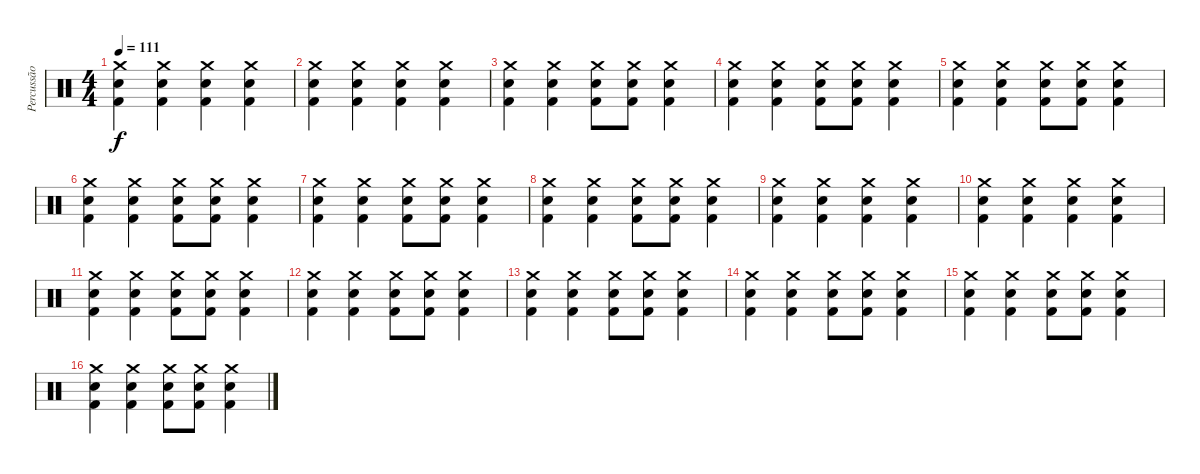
\track ("Percussão" "Percussão") {instrument percussion}
\staff {score}
\articulation defaults
\ts (4 4)
\tempo 111
\clef neutral
\ks c
("Kick (hit) 2" "Electric Snare (hit)" "Crash medium (hit)").4{dy f} ("Kick (hit) 2" "Electric Snare (hit)" "Crash medium (hit)").4 ("Kick (hit) 2" "Electric Snare (hit)" "Crash medium (hit)").4 ("Kick (hit) 2" "Electric Snare (hit)" "Crash medium (hit)").4 |
("Kick (hit) 2" "Electric Snare (hit)" "Crash medium (hit)").4 ("Kick (hit) 2" "Electric Snare (hit)" "Crash medium (hit)").4 ("Kick (hit) 2" "Electric Snare (hit)" "Crash medium (hit)").4 ("Kick (hit) 2" "Electric Snare (hit)" "Crash medium (hit)").4 |
("Kick (hit) 2" "Electric Snare (hit)" "Crash medium (hit)").4 ("Kick (hit) 2" "Electric Snare (hit)" "Crash medium (hit)").4 ("Kick (hit) 2" "Electric Snare (hit)" "Crash medium (hit)").8 ("Kick (hit) 2" "Electric Snare (hit)" "Crash medium (hit)").8 ("Kick (hit) 2" "Electric Snare (hit)" "Crash medium (hit)").4 |
("Kick (hit) 2" "Electric Snare (hit)" "Crash medium (hit)").4 ("Kick (hit) 2" "Electric Snare (hit)" "Crash medium (hit)").4 ("Kick (hit) 2" "Electric Snare (hit)" "Crash medium (hit)").8 ("Kick (hit) 2" "Electric Snare (hit)" "Crash medium (hit)").8 ("Kick (hit) 2" "Electric Snare (hit)" "Crash medium (hit)").4 |
("Kick (hit) 2" "Electric Snare (hit)" "Crash medium (hit)").4 ("Kick (hit) 2" "Electric Snare (hit)" "Crash medium (hit)").4 ("Kick (hit) 2" "Electric Snare (hit)" "Crash medium (hit)").8 ("Kick (hit) 2" "Electric Snare (hit)" "Crash medium (hit)").8 ("Kick (hit) 2" "Electric Snare (hit)" "Crash medium (hit)").4 |
("Kick (hit) 2" "Electric Snare (hit)" "Crash medium (hit)").4 ("Kick (hit) 2" "Electric Snare (hit)" "Crash medium (hit)").4 ("Kick (hit) 2" "Electric Snare (hit)" "Crash medium (hit)").8 ("Kick (hit) 2" "Electric Snare (hit)" "Crash medium (hit)").8 ("Kick (hit) 2" "Electric Snare (hit)" "Crash medium (hit)").4 |
("Kick (hit) 2" "Electric Snare (hit)" "Crash medium (hit)").4 ("Kick (hit) 2" "Electric Snare (hit)" "Crash medium (hit)").4 ("Kick (hit) 2" "Electric Snare (hit)" "Crash medium (hit)").8 ("Kick (hit) 2" "Electric Snare (hit)" "Crash medium (hit)").8 ("Kick (hit) 2" "Electric Snare (hit)" "Crash medium (hit)").4 |
("Kick (hit) 2" "Electric Snare (hit)" "Crash medium (hit)").4 ("Kick (hit) 2" "Electric Snare (hit)" "Crash medium (hit)").4 ("Kick (hit) 2" "Electric Snare (hit)" "Crash medium (hit)").8 ("Kick (hit) 2" "Electric Snare (hit)" "Crash medium (hit)").8 ("Kick (hit) 2" "Electric Snare (hit)" "Crash medium (hit)").4 |
("Kick (hit) 2" "Electric Snare (hit)" "Crash medium (hit)").4 ("Kick (hit) 2" "Electric Snare (hit)" "Crash medium (hit)").4 ("Kick (hit) 2" "Electric Snare (hit)" "Crash medium (hit)").4 ("Kick (hit) 2" "Electric Snare (hit)" "Crash medium (hit)").4 |
("Kick (hit) 2" "Electric Snare (hit)" "Crash medium (hit)").4 ("Kick (hit) 2" "Electric Snare (hit)" "Crash medium (hit)").4 ("Kick (hit) 2" "Electric Snare (hit)" "Crash medium (hit)").4 ("Kick (hit) 2" "Electric Snare (hit)" "Crash medium (hit)").4 |
("Kick (hit) 2" "Electric Snare (hit)" "Crash medium (hit)").4 ("Kick (hit) 2" "Electric Snare (hit)" "Crash medium (hit)").4 ("Kick (hit) 2" "Electric Snare (hit)" "Crash medium (hit)").8 ("Kick (hit) 2" "Electric Snare (hit)" "Crash medium (hit)").8 ("Kick (hit) 2" "Electric Snare (hit)" "Crash medium (hit)").4 |
("Kick (hit) 2" "Electric Snare (hit)" "Crash medium (hit)").4 ("Kick (hit) 2" "Electric Snare (hit)" "Crash medium (hit)").4 ("Kick (hit) 2" "Electric Snare (hit)" "Crash medium (hit)").8 ("Kick (hit) 2" "Electric Snare (hit)" "Crash medium (hit)").8 ("Kick (hit) 2" "Electric Snare (hit)" "Crash medium (hit)").4 |
("Kick (hit) 2" "Electric Snare (hit)" "Crash medium (hit)").4 ("Kick (hit) 2" "Electric Snare (hit)" "Crash medium (hit)").4 ("Kick (hit) 2" "Electric Snare (hit)" "Crash medium (hit)").8 ("Kick (hit) 2" "Electric Snare (hit)" "Crash medium (hit)").8 ("Kick (hit) 2" "Electric Snare (hit)" "Crash medium (hit)").4 |
("Kick (hit) 2" "Electric Snare (hit)" "Crash medium (hit)").4 ("Kick (hit) 2" "Electric Snare (hit)" "Crash medium (hit)").4 ("Kick (hit) 2" "Electric Snare (hit)" "Crash medium (hit)").8 ("Kick (hit) 2" "Electric Snare (hit)" "Crash medium (hit)").8 ("Kick (hit) 2" "Electric Snare (hit)" "Crash medium (hit)").4 |
("Kick (hit) 2" "Electric Snare (hit)" "Crash medium (hit)").4 ("Kick (hit) 2" "Electric Snare (hit)" "Crash medium (hit)").4 ("Kick (hit) 2" "Electric Snare (hit)" "Crash medium (hit)").8 ("Kick (hit) 2" "Electric Snare (hit)" "Crash medium (hit)").8 ("Kick (hit) 2" "Electric Snare (hit)" "Crash medium (hit)").4 |
("Kick (hit) 2" "Electric Snare (hit)" "Crash medium (hit)").4 ("Kick (hit) 2" "Electric Snare (hit)" "Crash medium (hit)").4 ("Kick (hit) 2" "Electric Snare (hit)" "Crash medium (hit)").8 ("Kick (hit) 2" "Electric Snare (hit)" "Crash medium (hit)").8 ("Kick (hit) 2" "Electric Snare (hit)" "Crash medium (hit)").4
